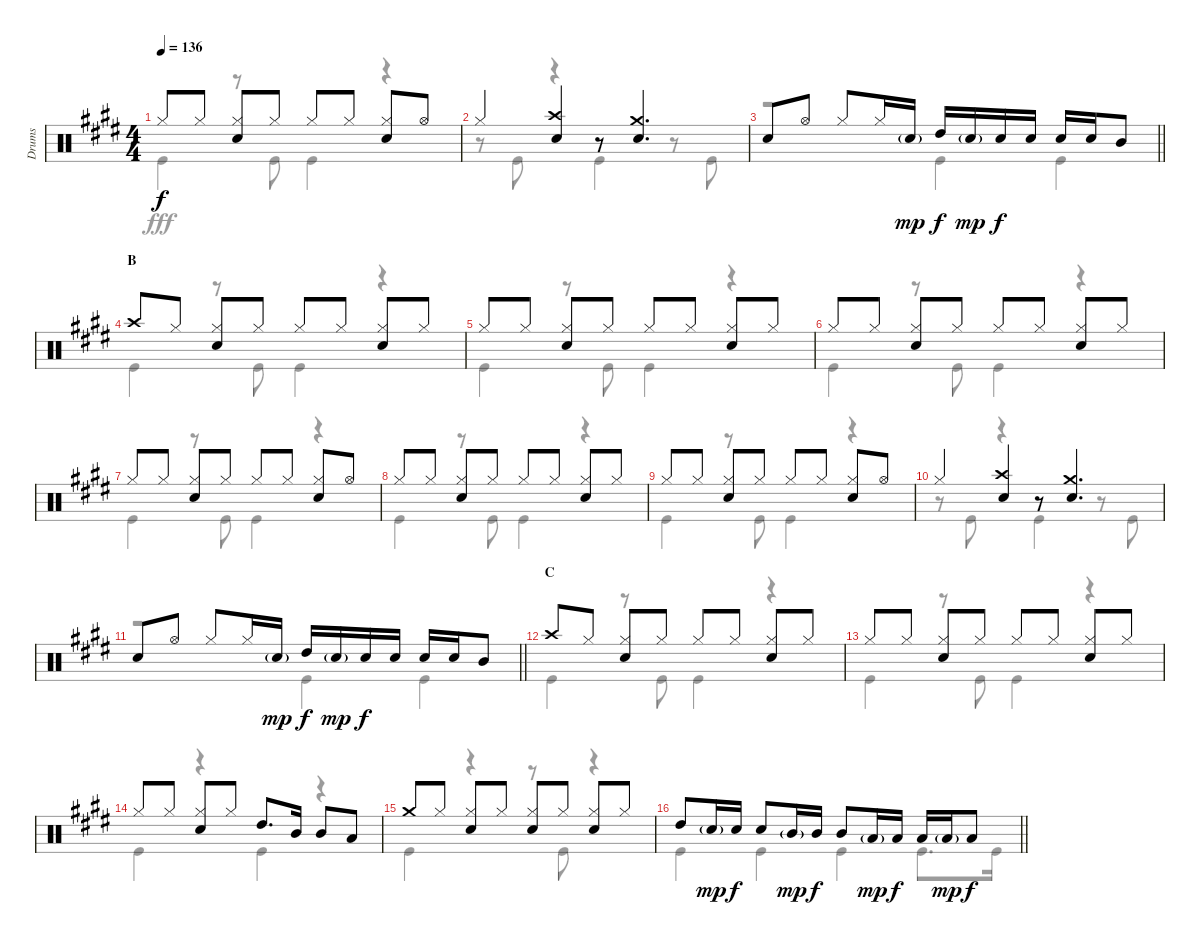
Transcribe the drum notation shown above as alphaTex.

\track ("Drums" "Drums") {instrument percussion}
\staff {score}
\articulation defaults
\voice
\ts (4 4)
\tempo 136
\clef neutral
\ks e "Hi-Hat (closed)".8{dy f} "Hi-Hat (closed)".8
("Hi-Hat (closed)" "Snare (hit) 2").8 "Hi-Hat (closed)".8 "Hi-Hat (closed)".8 "Hi-Hat (closed)".8 ("Hi-Hat (closed)" "Snare (hit) 2").8 "Hi-Hat (open)".8 |
"Hi-Hat (closed)".4 ("Crash high (hit)" "Snare (hit) 2").4 r.8 ("Crash medium (hit)" "Snare (hit) 2").4{d} |
\barLineRight lightlight "Snare (hit) 2".8 "Hi-Hat (open)".8 "Hi-Hat (closed)".8 "Hi-Hat (closed)".16 "Snare (hit) 2"{g}.16{dy mp} "High Tom (hit)".16{dy f} "Snare (hit) 2"{g}.16{dy mp} "Snare (hit) 2".16{dy f} "Snare (hit) 2".16 "Snare (hit) 2".16 "Snare (hit) 2".16 "Mid Tom (hit)".8
|
\section ("" "B")
"Crash high (hit)".8 "Hi-Hat (closed)".8 ("Hi-Hat (closed)" "Snare (hit) 2").8 "Hi-Hat (closed)".8 "Hi-Hat (closed)".8 "Hi-Hat (closed)".8 ("Hi-Hat (closed)" "Snare (hit) 2").8 "Hi-Hat (closed)".8 |
"Hi-Hat (closed)".8 "Hi-Hat (closed)".8 ("Hi-Hat (closed)" "Snare (hit) 2").8 "Hi-Hat (closed)".8 "Hi-Hat (closed)".8 "Hi-Hat (closed)".8 ("Hi-Hat (closed)" "Snare (hit) 2").8 "Hi-Hat (closed)".8 |
"Hi-Hat (closed)".8 "Hi-Hat (closed)".8 ("Hi-Hat (closed)" "Snare (hit) 2").8 "Hi-Hat (closed)".8 "Hi-Hat (closed)".8 "Hi-Hat (closed)".8 ("Hi-Hat (closed)" "Snare (hit) 2").8 "Hi-Hat (closed)".8 |
"Hi-Hat (closed)".8 "Hi-Hat (closed)".8 ("Hi-Hat (closed)" "Snare (hit) 2").8 "Hi-Hat (closed)".8 "Hi-Hat (closed)".8 "Hi-Hat (closed)".8 ("Hi-Hat (closed)" "Snare (hit) 2").8 "Hi-Hat (open)".8 |
"Hi-Hat (closed)".8 "Hi-Hat (closed)".8 ("Hi-Hat (closed)" "Snare (hit) 2").8 "Hi-Hat (closed)".8 "Hi-Hat (closed)".8 "Hi-Hat (closed)".8 ("Hi-Hat (closed)" "Snare (hit) 2").8 "Hi-Hat (closed)".8 |
"Hi-Hat (closed)".8 "Hi-Hat (closed)".8 ("Hi-Hat (closed)" "Snare (hit) 2").8 "Hi-Hat (closed)".8 "Hi-Hat (closed)".8 "Hi-Hat (closed)".8 ("Hi-Hat (closed)" "Snare (hit) 2").8 "Hi-Hat (open)".8 |
"Hi-Hat (closed)".4 ("Crash high (hit)" "Snare (hit) 2").4 r.8 ("Crash medium (hit)" "Snare (hit) 2").4{d} |
\barLineRight lightlight "Snare (hit) 2".8 "Hi-Hat (open)".8 "Hi-Hat (closed)".8 "Hi-Hat (closed)".16 "Snare (hit) 2"{g}.16{dy mp} "High Tom (hit)".16{dy f} "Snare (hit) 2"{g}.16{dy mp} "Snare (hit) 2".16{dy f} "Snare (hit) 2".16 "Snare (hit) 2".16 "Snare (hit) 2".16 "Mid Tom (hit)".8
|
\section ("" "C")
"Crash high (hit)".8 "Hi-Hat (closed)".8 ("Hi-Hat (closed)" "Snare (hit) 2").8 "Hi-Hat (closed)".8 "Hi-Hat (closed)".8 "Hi-Hat (closed)".8 ("Hi-Hat (closed)" "Snare (hit) 2").8 "Hi-Hat (closed)".8 |
"Hi-Hat (closed)".8 "Hi-Hat (closed)".8 ("Hi-Hat (closed)" "Snare (hit) 2").8 "Hi-Hat (closed)".8 "Hi-Hat (closed)".8 "Hi-Hat (closed)".8 ("Hi-Hat (closed)" "Snare (hit) 2").8 "Hi-Hat (closed)".8 |
"Hi-Hat (closed)".8 "Hi-Hat (closed)".8 ("Hi-Hat (closed)" "Snare (hit) 2").8 "Hi-Hat (closed)".8 "High Tom (hit)".8{d} "Mid Tom (hit)".16 "Mid Tom (hit)".8 "Low Tom (hit)".8 |
"Crash medium (hit)".8 "Hi-Hat (closed)".8 ("Hi-Hat (closed)" "Snare (hit) 2").8 "Hi-Hat (closed)".8 ("Hi-Hat (closed)" "Snare (hit) 2").8 "Hi-Hat (closed)".8 ("Hi-Hat (closed)" "Snare (hit) 2").8 "Hi-Hat (closed)".8 |
\barLineRight lightlight "High Tom (hit)".8 "Snare (hit) 2"{g}.16{dy mp} "Snare (hit) 2".16{dy f} "Snare (hit) 2".8 "Mid Tom (hit)"{g}.16{dy mp} "Mid Tom (hit)".16{dy f} "Mid Tom (hit)".8 "Low Tom (hit)"{g}.16{dy mp} "Low Tom (hit)".16{dy f} "Low Tom (hit)".16 "Low Tom (hit)"{g}.16{dy mp} "Low Tom (hit)".8{dy f}
\voice
\clef neutral
\ottava regular
\simile none
\ks e "Kick (hit)".4{dy fff}
r.8 "Kick (hit)".8 "Kick (hit)".4 r.4 |
r.8 "Kick (hit)".8 r.4 "Kick (hit)".4 r.8 "Kick (hit)".8 |
\barLineRight lightlight
r.2 "Kick (hit)".4 "Kick (hit)".4 |
"Kick (hit)".4 r.8 "Kick (hit)".8 "Kick (hit)".4 r.4 |
"Kick (hit)".4 r.8 "Kick (hit)".8 "Kick (hit)".4 r.4 |
"Kick (hit)".4 r.8 "Kick (hit)".8 "Kick (hit)".4 r.4 |
"Kick (hit)".4 r.8 "Kick (hit)".8 "Kick (hit)".4 r.4 |
"Kick (hit)".4 r.8 "Kick (hit)".8 "Kick (hit)".4 r.4 |
"Kick (hit)".4 r.8 "Kick (hit)".8 "Kick (hit)".4 r.4 |
r.8 "Kick (hit)".8 r.4 "Kick (hit)".4 r.8 "Kick (hit)".8 |
\barLineRight lightlight
r.2 "Kick (hit)".4 "Kick (hit)".4 |
"Kick (hit)".4 r.8 "Kick (hit)".8 "Kick (hit)".4 r.4 |
"Kick (hit)".4 r.8 "Kick (hit)".8 "Kick (hit)".4 r.4 |
"Kick (hit)".4 r.4 "Kick (hit)".4 r.4 |
"Kick (hit)".4 r.4 r.8 "Kick (hit)".8 r.4 |
\barLineRight lightlight "Kick (hit)".4 "Kick (hit)".4 "Kick (hit)".4 "Kick (hit)".8{d} "Kick (hit)".16
